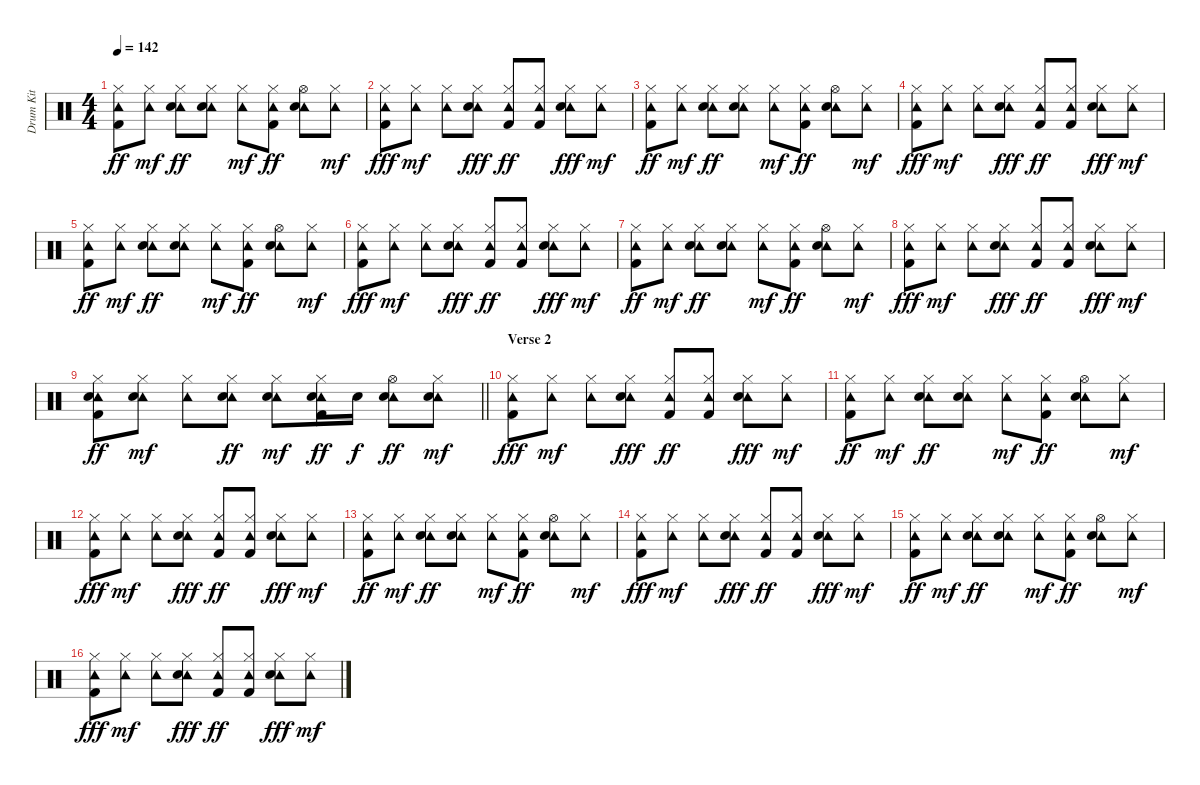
\track ("Drum Kit" "Drum Kit") {instrument percussion}
\staff {score}
\articulation defaults
\ts (4 4)
\tempo 142
\clef neutral
\ks c
("Tambourine (hit)" "Hi-Hat (closed)" "Kick (hit) 2").8{dy ff} ("Tambourine (hit)" "Hi-Hat (closed)").8{dy mf} ("Tambourine (hit)" "Hi-Hat (closed)" "Electric Snare (hit)").8{dy ff} ("Tambourine (hit)" "Hi-Hat (closed)" "Electric Snare (hit)").8 ("Tambourine (hit)" "Hi-Hat (closed)").8{dy mf} ("Tambourine (hit)" "Hi-Hat (closed)" "Kick (hit) 2").8{dy ff} ("Tambourine (hit)" "Hi-Hat (open)" "Electric Snare (hit)").8 ("Tambourine (hit)" "Hi-Hat (closed)").8{dy mf} |
("Hi-Hat (closed)" "Tambourine (hit)" "Kick (hit) 2").8{dy fff} ("Tambourine (hit)" "Hi-Hat (closed)").8{dy mf} ("Tambourine (hit)" "Hi-Hat (closed)").8 ("Tambourine (hit)" "Hi-Hat (closed)" "Electric Snare (hit)").8{dy fff} ("Tambourine (hit)" "Hi-Hat (closed)" "Kick (hit) 2").8{dy ff} ("Tambourine (hit)" "Hi-Hat (closed)" "Kick (hit) 2").8 ("Tambourine (hit)" "Hi-Hat (closed)" "Electric Snare (hit)").8{dy fff} ("Tambourine (hit)" "Hi-Hat (closed)").8{dy mf} |
("Tambourine (hit)" "Hi-Hat (closed)" "Kick (hit) 2").8{dy ff} ("Tambourine (hit)" "Hi-Hat (closed)").8{dy mf} ("Tambourine (hit)" "Hi-Hat (closed)" "Electric Snare (hit)").8{dy ff} ("Tambourine (hit)" "Hi-Hat (closed)" "Electric Snare (hit)").8 ("Tambourine (hit)" "Hi-Hat (closed)").8{dy mf} ("Tambourine (hit)" "Hi-Hat (closed)" "Kick (hit) 2").8{dy ff} ("Tambourine (hit)" "Hi-Hat (open)" "Electric Snare (hit)").8 ("Tambourine (hit)" "Hi-Hat (closed)").8{dy mf} |
("Hi-Hat (closed)" "Tambourine (hit)" "Kick (hit) 2").8{dy fff} ("Tambourine (hit)" "Hi-Hat (closed)").8{dy mf} ("Tambourine (hit)" "Hi-Hat (closed)").8 ("Tambourine (hit)" "Hi-Hat (closed)" "Electric Snare (hit)").8{dy fff} ("Tambourine (hit)" "Hi-Hat (closed)" "Kick (hit) 2").8{dy ff} ("Tambourine (hit)" "Hi-Hat (closed)" "Kick (hit) 2").8 ("Tambourine (hit)" "Hi-Hat (closed)" "Electric Snare (hit)").8{dy fff} ("Tambourine (hit)" "Hi-Hat (closed)").8{dy mf} |
("Tambourine (hit)" "Hi-Hat (closed)" "Kick (hit) 2").8{dy ff} ("Tambourine (hit)" "Hi-Hat (closed)").8{dy mf} ("Tambourine (hit)" "Hi-Hat (closed)" "Electric Snare (hit)").8{dy ff} ("Tambourine (hit)" "Hi-Hat (closed)" "Electric Snare (hit)").8 ("Tambourine (hit)" "Hi-Hat (closed)").8{dy mf} ("Tambourine (hit)" "Hi-Hat (closed)" "Kick (hit) 2").8{dy ff} ("Tambourine (hit)" "Hi-Hat (open)" "Electric Snare (hit)").8 ("Tambourine (hit)" "Hi-Hat (closed)").8{dy mf} |
("Hi-Hat (closed)" "Tambourine (hit)" "Kick (hit) 2").8{dy fff} ("Tambourine (hit)" "Hi-Hat (closed)").8{dy mf} ("Tambourine (hit)" "Hi-Hat (closed)").8 ("Tambourine (hit)" "Hi-Hat (closed)" "Electric Snare (hit)").8{dy fff} ("Tambourine (hit)" "Hi-Hat (closed)" "Kick (hit) 2").8{dy ff} ("Tambourine (hit)" "Hi-Hat (closed)" "Kick (hit) 2").8 ("Tambourine (hit)" "Hi-Hat (closed)" "Electric Snare (hit)").8{dy fff} ("Tambourine (hit)" "Hi-Hat (closed)").8{dy mf} |
("Tambourine (hit)" "Hi-Hat (closed)" "Kick (hit) 2").8{dy ff} ("Tambourine (hit)" "Hi-Hat (closed)").8{dy mf} ("Tambourine (hit)" "Hi-Hat (closed)" "Electric Snare (hit)").8{dy ff} ("Tambourine (hit)" "Hi-Hat (closed)" "Electric Snare (hit)").8 ("Tambourine (hit)" "Hi-Hat (closed)").8{dy mf} ("Tambourine (hit)" "Hi-Hat (closed)" "Kick (hit) 2").8{dy ff} ("Tambourine (hit)" "Hi-Hat (open)" "Electric Snare (hit)").8 ("Tambourine (hit)" "Hi-Hat (closed)").8{dy mf} |
("Hi-Hat (closed)" "Tambourine (hit)" "Kick (hit) 2").8{dy fff} ("Tambourine (hit)" "Hi-Hat (closed)").8{dy mf} ("Tambourine (hit)" "Hi-Hat (closed)").8 ("Tambourine (hit)" "Hi-Hat (closed)" "Electric Snare (hit)").8{dy fff} ("Tambourine (hit)" "Hi-Hat (closed)" "Kick (hit) 2").8{dy ff} ("Tambourine (hit)" "Hi-Hat (closed)" "Kick (hit) 2").8 ("Tambourine (hit)" "Hi-Hat (closed)" "Electric Snare (hit)").8{dy fff} ("Tambourine (hit)" "Hi-Hat (closed)").8{dy mf} |
\barLineRight lightlight
("Tambourine (hit)" "Hi-Hat (closed)" "Electric Snare (hit)" "Kick (hit) 2").8{dy ff} ("Tambourine (hit)" "Electric Snare (hit)" "Hi-Hat (closed)").8{dy mf} ("Tambourine (hit)" "Hi-Hat (closed)").8 ("Tambourine (hit)" "Hi-Hat (closed)" "Electric Snare (hit)").8{dy ff} ("Tambourine (hit)" "Electric Snare (hit)" "Hi-Hat (closed)").8{dy mf} ("Tambourine (hit)" "Electric Snare (hit)" "Hi-Hat (closed)" "Kick (hit) 2").16{dy ff} "Electric Snare (hit)".16{dy f} ("Tambourine (hit)" "Hi-Hat (open)" "Electric Snare (hit)").8{dy ff} ("Tambourine (hit)" "Electric Snare (hit)" "Hi-Hat (closed)").8{dy mf} |
\section ("" "Verse 2")
("Hi-Hat (closed)" "Tambourine (hit)" "Kick (hit) 2").8{dy fff} ("Tambourine (hit)" "Hi-Hat (closed)").8{dy mf} ("Tambourine (hit)" "Hi-Hat (closed)").8 ("Tambourine (hit)" "Hi-Hat (closed)" "Electric Snare (hit)").8{dy fff} ("Tambourine (hit)" "Hi-Hat (closed)" "Kick (hit) 2").8{dy ff} ("Tambourine (hit)" "Hi-Hat (closed)" "Kick (hit) 2").8 ("Tambourine (hit)" "Hi-Hat (closed)" "Electric Snare (hit)").8{dy fff} ("Tambourine (hit)" "Hi-Hat (closed)").8{dy mf} |
("Tambourine (hit)" "Hi-Hat (closed)" "Kick (hit) 2").8{dy ff} ("Tambourine (hit)" "Hi-Hat (closed)").8{dy mf} ("Tambourine (hit)" "Hi-Hat (closed)" "Electric Snare (hit)").8{dy ff} ("Tambourine (hit)" "Hi-Hat (closed)" "Electric Snare (hit)").8 ("Tambourine (hit)" "Hi-Hat (closed)").8{dy mf} ("Tambourine (hit)" "Hi-Hat (closed)" "Kick (hit) 2").8{dy ff} ("Tambourine (hit)" "Hi-Hat (open)" "Electric Snare (hit)").8 ("Tambourine (hit)" "Hi-Hat (closed)").8{dy mf} |
("Hi-Hat (closed)" "Tambourine (hit)" "Kick (hit) 2").8{dy fff} ("Tambourine (hit)" "Hi-Hat (closed)").8{dy mf} ("Tambourine (hit)" "Hi-Hat (closed)").8 ("Tambourine (hit)" "Hi-Hat (closed)" "Electric Snare (hit)").8{dy fff} ("Tambourine (hit)" "Hi-Hat (closed)" "Kick (hit) 2").8{dy ff} ("Tambourine (hit)" "Hi-Hat (closed)" "Kick (hit) 2").8 ("Tambourine (hit)" "Hi-Hat (closed)" "Electric Snare (hit)").8{dy fff} ("Tambourine (hit)" "Hi-Hat (closed)").8{dy mf} |
("Tambourine (hit)" "Hi-Hat (closed)" "Kick (hit) 2").8{dy ff} ("Tambourine (hit)" "Hi-Hat (closed)").8{dy mf} ("Tambourine (hit)" "Hi-Hat (closed)" "Electric Snare (hit)").8{dy ff} ("Tambourine (hit)" "Hi-Hat (closed)" "Electric Snare (hit)").8 ("Tambourine (hit)" "Hi-Hat (closed)").8{dy mf} ("Tambourine (hit)" "Hi-Hat (closed)" "Kick (hit) 2").8{dy ff} ("Tambourine (hit)" "Hi-Hat (open)" "Electric Snare (hit)").8 ("Tambourine (hit)" "Hi-Hat (closed)").8{dy mf} |
("Hi-Hat (closed)" "Tambourine (hit)" "Kick (hit) 2").8{dy fff} ("Tambourine (hit)" "Hi-Hat (closed)").8{dy mf} ("Tambourine (hit)" "Hi-Hat (closed)").8 ("Tambourine (hit)" "Hi-Hat (closed)" "Electric Snare (hit)").8{dy fff} ("Tambourine (hit)" "Hi-Hat (closed)" "Kick (hit) 2").8{dy ff} ("Tambourine (hit)" "Hi-Hat (closed)" "Kick (hit) 2").8 ("Tambourine (hit)" "Hi-Hat (closed)" "Electric Snare (hit)").8{dy fff} ("Tambourine (hit)" "Hi-Hat (closed)").8{dy mf} |
("Tambourine (hit)" "Hi-Hat (closed)" "Kick (hit) 2").8{dy ff} ("Tambourine (hit)" "Hi-Hat (closed)").8{dy mf} ("Tambourine (hit)" "Hi-Hat (closed)" "Electric Snare (hit)").8{dy ff} ("Tambourine (hit)" "Hi-Hat (closed)" "Electric Snare (hit)").8 ("Tambourine (hit)" "Hi-Hat (closed)").8{dy mf} ("Tambourine (hit)" "Hi-Hat (closed)" "Kick (hit) 2").8{dy ff} ("Tambourine (hit)" "Hi-Hat (open)" "Electric Snare (hit)").8 ("Tambourine (hit)" "Hi-Hat (closed)").8{dy mf} |
("Hi-Hat (closed)" "Tambourine (hit)" "Kick (hit) 2").8{dy fff} ("Tambourine (hit)" "Hi-Hat (closed)").8{dy mf} ("Tambourine (hit)" "Hi-Hat (closed)").8 ("Tambourine (hit)" "Hi-Hat (closed)" "Electric Snare (hit)").8{dy fff} ("Tambourine (hit)" "Hi-Hat (closed)" "Kick (hit) 2").8{dy ff} ("Tambourine (hit)" "Hi-Hat (closed)" "Kick (hit) 2").8 ("Tambourine (hit)" "Hi-Hat (closed)" "Electric Snare (hit)").8{dy fff} ("Tambourine (hit)" "Hi-Hat (closed)").8{dy mf}
